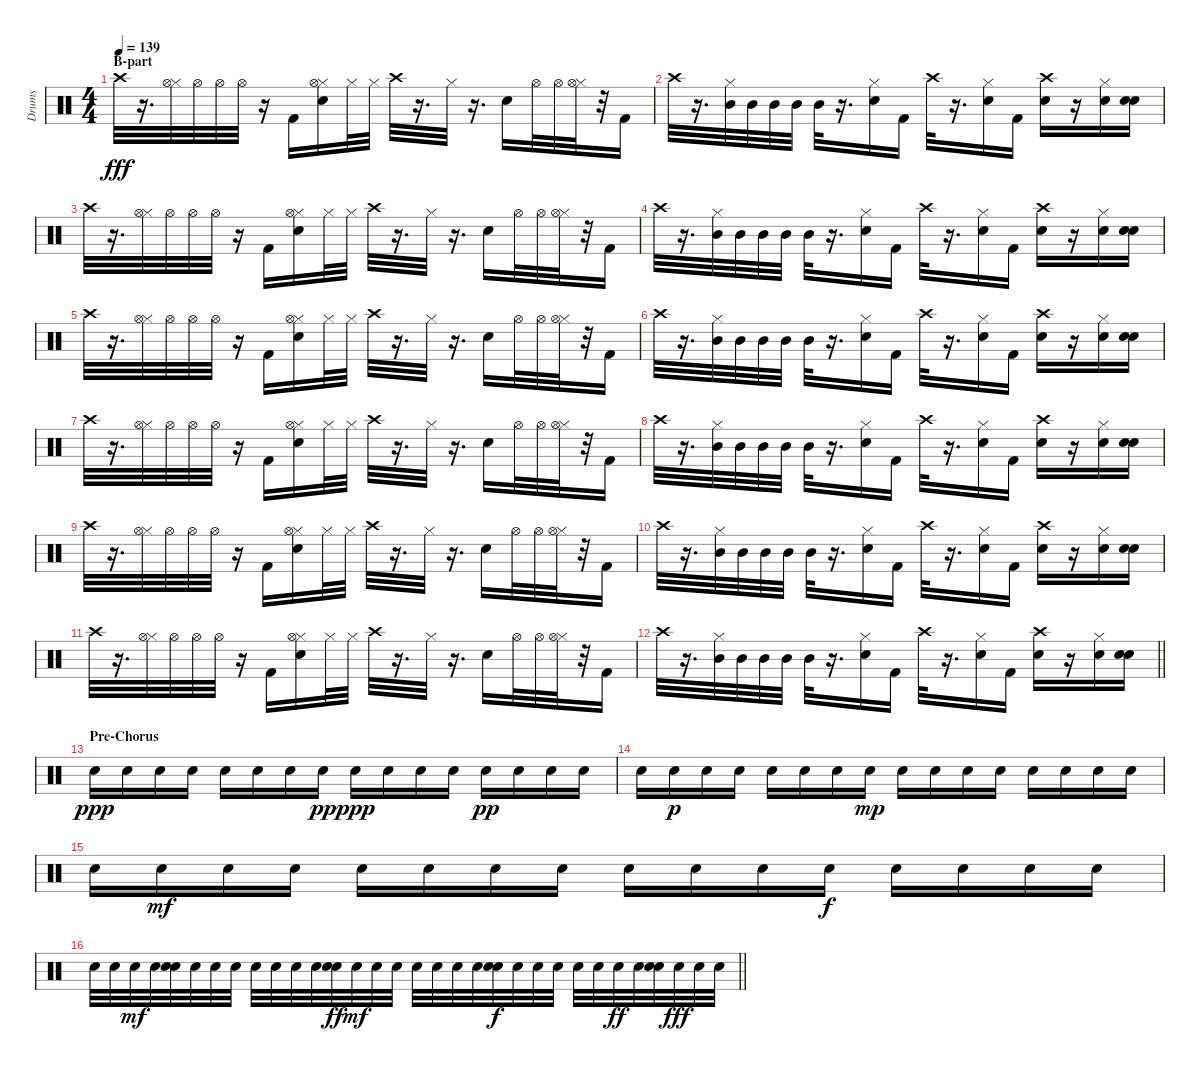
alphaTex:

\track ("Drums" "Drums") {instrument percussion}
\staff {score}
\articulation defaults
\ts (4 4)
\section ("" "B-part")
\tempo 139
\clef neutral
\ks c "Crash high (hit)".32{dy fff}
r.16{d} ("Hi-Hat (closed)" "Hi-Hat (open)").32 "Hi-Hat (open)".32 "Hi-Hat (open)".32 "Hi-Hat (open)".32 r.16 "Kick (hit) 2".16 ("Snare (hit) 2" "Hi-Hat (closed)" "Hi-Hat (open)").16 "Hi-Hat (closed)".32 "Hi-Hat (closed)".32 "Crash high (hit)".32 r.16{d} "Hi-Hat (closed)".32 r.16{d} "Snare (hit) 2".16 "Hi-Hat (open)".32 "Hi-Hat (open)".32 ("Hi-Hat (closed)" "Hi-Hat (open)").32 r.32 "Kick (hit) 2".16 |
"Crash high (hit)".32 r.16{d} ("Hi-Hat (closed)" "Mid Tom (hit)").32 "Mid Tom (hit)".32 "Mid Tom (hit)".32 "Mid Tom (hit)".32 "Mid Tom (hit)".32 r.16{d} ("Snare (hit) 2" "Hi-Hat (closed)").16 "Kick (hit) 2".16 "Crash high (hit)".32 r.16{d} ("Snare (hit) 2" "Hi-Hat (closed)").16 "Kick (hit) 2".16 ("Snare (hit) 2" "Crash high (hit)").16 r.16 ("Snare (hit) 2" "Hi-Hat (closed)").16 ("Snare (hit) 2" "Snare (hit) 2").16 |
"Crash high (hit)".32 r.16{d} ("Hi-Hat (closed)" "Hi-Hat (open)").32 "Hi-Hat (open)".32 "Hi-Hat (open)".32 "Hi-Hat (open)".32 r.16 "Kick (hit) 2".16 ("Snare (hit) 2" "Hi-Hat (closed)" "Hi-Hat (open)").16 "Hi-Hat (closed)".32 "Hi-Hat (closed)".32 "Crash high (hit)".32 r.16{d} "Hi-Hat (closed)".32 r.16{d} "Snare (hit) 2".16 "Hi-Hat (open)".32 "Hi-Hat (open)".32 ("Hi-Hat (closed)" "Hi-Hat (open)").32 r.32 "Kick (hit) 2".16 |
"Crash high (hit)".32 r.16{d} ("Hi-Hat (closed)" "Mid Tom (hit)").32 "Mid Tom (hit)".32 "Mid Tom (hit)".32 "Mid Tom (hit)".32 "Mid Tom (hit)".32 r.16{d} ("Snare (hit) 2" "Hi-Hat (closed)").16 "Kick (hit) 2".16 "Crash high (hit)".32 r.16{d} ("Snare (hit) 2" "Hi-Hat (closed)").16 "Kick (hit) 2".16 ("Snare (hit) 2" "Crash high (hit)").16 r.16 ("Snare (hit) 2" "Hi-Hat (closed)").16 ("Snare (hit) 2" "Snare (hit) 2").16 |
"Crash high (hit)".32 r.16{d} ("Hi-Hat (closed)" "Hi-Hat (open)").32 "Hi-Hat (open)".32 "Hi-Hat (open)".32 "Hi-Hat (open)".32 r.16 "Kick (hit) 2".16 ("Snare (hit) 2" "Hi-Hat (closed)" "Hi-Hat (open)").16 "Hi-Hat (closed)".32 "Hi-Hat (closed)".32 "Crash high (hit)".32 r.16{d} "Hi-Hat (closed)".32 r.16{d} "Snare (hit) 2".16 "Hi-Hat (open)".32 "Hi-Hat (open)".32 ("Hi-Hat (closed)" "Hi-Hat (open)").32 r.32 "Kick (hit) 2".16 |
"Crash high (hit)".32 r.16{d} ("Hi-Hat (closed)" "Mid Tom (hit)").32 "Mid Tom (hit)".32 "Mid Tom (hit)".32 "Mid Tom (hit)".32 "Mid Tom (hit)".32 r.16{d} ("Snare (hit) 2" "Hi-Hat (closed)").16 "Kick (hit) 2".16 "Crash high (hit)".32 r.16{d} ("Snare (hit) 2" "Hi-Hat (closed)").16 "Kick (hit) 2".16 ("Snare (hit) 2" "Crash high (hit)").16 r.16 ("Snare (hit) 2" "Hi-Hat (closed)").16 ("Snare (hit) 2" "Snare (hit) 2").16 |
"Crash high (hit)".32 r.16{d} ("Hi-Hat (closed)" "Hi-Hat (open)").32 "Hi-Hat (open)".32 "Hi-Hat (open)".32 "Hi-Hat (open)".32 r.16 "Kick (hit) 2".16 ("Snare (hit) 2" "Hi-Hat (closed)" "Hi-Hat (open)").16 "Hi-Hat (closed)".32 "Hi-Hat (closed)".32 "Crash high (hit)".32 r.16{d} "Hi-Hat (closed)".32 r.16{d} "Snare (hit) 2".16 "Hi-Hat (open)".32 "Hi-Hat (open)".32 ("Hi-Hat (closed)" "Hi-Hat (open)").32 r.32 "Kick (hit) 2".16 |
"Crash high (hit)".32 r.16{d} ("Hi-Hat (closed)" "Mid Tom (hit)").32 "Mid Tom (hit)".32 "Mid Tom (hit)".32 "Mid Tom (hit)".32 "Mid Tom (hit)".32 r.16{d} ("Snare (hit) 2" "Hi-Hat (closed)").16 "Kick (hit) 2".16 "Crash high (hit)".32 r.16{d} ("Snare (hit) 2" "Hi-Hat (closed)").16 "Kick (hit) 2".16 ("Snare (hit) 2" "Crash high (hit)").16 r.16 ("Snare (hit) 2" "Hi-Hat (closed)").16 ("Snare (hit) 2" "Snare (hit) 2").16 |
"Crash high (hit)".32 r.16{d} ("Hi-Hat (closed)" "Hi-Hat (open)").32 "Hi-Hat (open)".32 "Hi-Hat (open)".32 "Hi-Hat (open)".32 r.16 "Kick (hit) 2".16 ("Snare (hit) 2" "Hi-Hat (closed)" "Hi-Hat (open)").16 "Hi-Hat (closed)".32 "Hi-Hat (closed)".32 "Crash high (hit)".32 r.16{d} "Hi-Hat (closed)".32 r.16{d} "Snare (hit) 2".16 "Hi-Hat (open)".32 "Hi-Hat (open)".32 ("Hi-Hat (closed)" "Hi-Hat (open)").32 r.32 "Kick (hit) 2".16 |
"Crash high (hit)".32 r.16{d} ("Hi-Hat (closed)" "Mid Tom (hit)").32 "Mid Tom (hit)".32 "Mid Tom (hit)".32 "Mid Tom (hit)".32 "Mid Tom (hit)".32 r.16{d} ("Snare (hit) 2" "Hi-Hat (closed)").16 "Kick (hit) 2".16 "Crash high (hit)".32 r.16{d} ("Snare (hit) 2" "Hi-Hat (closed)").16 "Kick (hit) 2".16 ("Snare (hit) 2" "Crash high (hit)").16 r.16 ("Snare (hit) 2" "Hi-Hat (closed)").16 ("Snare (hit) 2" "Snare (hit) 2").16 |
"Crash high (hit)".32 r.16{d} ("Hi-Hat (closed)" "Hi-Hat (open)").32 "Hi-Hat (open)".32 "Hi-Hat (open)".32 "Hi-Hat (open)".32 r.16 "Kick (hit) 2".16 ("Snare (hit) 2" "Hi-Hat (closed)" "Hi-Hat (open)").16 "Hi-Hat (closed)".32 "Hi-Hat (closed)".32 "Crash high (hit)".32 r.16{d} "Hi-Hat (closed)".32 r.16{d} "Snare (hit) 2".16 "Hi-Hat (open)".32 "Hi-Hat (open)".32 ("Hi-Hat (closed)" "Hi-Hat (open)").32 r.32 "Kick (hit) 2".16 |
\barLineRight lightlight "Crash high (hit)".32
r.16{d} ("Hi-Hat (closed)" "Mid Tom (hit)").32 "Mid Tom (hit)".32 "Mid Tom (hit)".32 "Mid Tom (hit)".32 "Mid Tom (hit)".32 r.16{d} ("Snare (hit) 2" "Hi-Hat (closed)").16 "Kick (hit) 2".16 "Crash high (hit)".32 r.16{d} ("Snare (hit) 2" "Hi-Hat (closed)").16 "Kick (hit) 2".16 ("Snare (hit) 2" "Crash high (hit)").16 r.16 ("Snare (hit) 2" "Hi-Hat (closed)").16 ("Snare (hit) 2" "Snare (hit) 2").16 |
\section ("" "Pre-Chorus")
"Snare (hit) 2".16{dy ppp} "Snare (hit) 2".16 "Snare (hit) 2".16 "Snare (hit) 2".16 "Snare (hit) 2".16 "Snare (hit) 2".16 "Snare (hit) 2".16 "Snare (hit) 2".16{dy pp} "Snare (hit) 2".16{dy ppp} "Snare (hit) 2".16 "Snare (hit) 2".16 "Snare (hit) 2".16 "Snare (hit) 2".16{dy pp} "Snare (hit) 2".16 "Snare (hit) 2".16 "Snare (hit) 2".16 |
"Snare (hit) 2".16 "Snare (hit) 2".16{dy p} "Snare (hit) 2".16 "Snare (hit) 2".16 "Snare (hit) 2".16 "Snare (hit) 2".16 "Snare (hit) 2".16 "Snare (hit) 2".16{dy mp} "Snare (hit) 2".16 "Snare (hit) 2".16 "Snare (hit) 2".16 "Snare (hit) 2".16 "Snare (hit) 2".16 "Snare (hit) 2".16 "Snare (hit) 2".16 "Snare (hit) 2".16 |
"Snare (hit) 2".16 "Snare (hit) 2".16{dy mf} "Snare (hit) 2".16 "Snare (hit) 2".16 "Snare (hit) 2".16 "Snare (hit) 2".16 "Snare (hit) 2".16 "Snare (hit) 2".16 "Snare (hit) 2".16 "Snare (hit) 2".16 "Snare (hit) 2".16 "Snare (hit) 2".16{dy f} "Snare (hit) 2".16 "Snare (hit) 2".16 "Snare (hit) 2".16 "Snare (hit) 2".16 |
\barLineRight lightlight "Snare (hit) 2".32 "Snare (hit) 2".32 "Snare (hit) 2".32{dy mf} "Snare (hit) 2".32
("Snare (hit) 2" "Snare (hit) 2").32 "Snare (hit) 2".32 "Snare (hit) 2".32 "Snare (hit) 2".32 "Snare (hit) 2".32 "Snare (hit) 2".32 "Snare (hit) 2".32 "Snare (hit) 2".32 ("Snare (hit) 2" "Snare (hit) 2").32{dy ff} "Snare (hit) 2".32{dy mf} "Snare (hit) 2".32 "Snare (hit) 2".32 "Snare (hit) 2".32 "Snare (hit) 2".32 "Snare (hit) 2".32 "Snare (hit) 2".32 ("Snare (hit) 2" "Snare (hit) 2").32{dy f} "Snare (hit) 2".32 "Snare (hit) 2".32 "Snare (hit) 2".32 "Snare (hit) 2".32 "Snare (hit) 2".32 "Snare (hit) 2".32{dy ff} "Snare (hit) 2".32 ("Snare (hit) 2" "Snare (hit) 2").32 "Snare (hit) 2".32{dy fff} "Snare (hit) 2".32 "Snare (hit) 2".32
